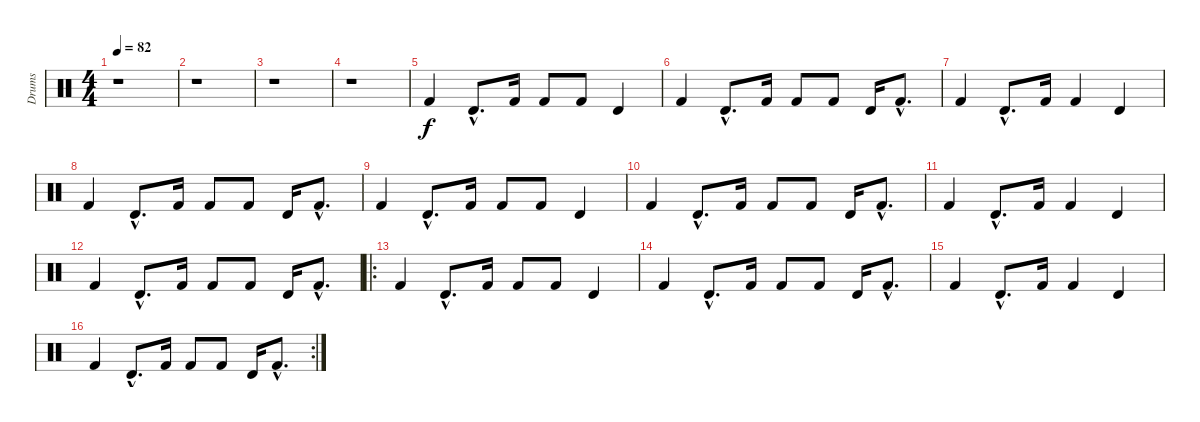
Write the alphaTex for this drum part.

\track ("Drums" "Drums") {instrument percussion}
\staff {score}
\articulation defaults
\ts (4 4)
\tempo 82
\clef neutral
\ks c
r.1{dy f} |
r.1 |
r.1 |
r.1 |
"Kick (hit) 2".4 "Timbale high (hit)"{hac}.8{d} "Kick (hit) 2".16 "Kick (hit) 2".8 "Kick (hit) 2".8 "Timbale high (hit)".4 |
"Kick (hit) 2".4 "Timbale high (hit)"{hac}.8{d} "Kick (hit) 2".16 "Kick (hit) 2".8 "Kick (hit) 2".8 "Timbale high (hit)".16 "Kick (hit) 2"{hac}.8{d} |
"Kick (hit) 2".4 "Timbale high (hit)"{hac}.8{d} "Kick (hit) 2".16 "Kick (hit) 2".4 "Timbale high (hit)".4 |
"Kick (hit) 2".4 "Timbale high (hit)"{hac}.8{d} "Kick (hit) 2".16 "Kick (hit) 2".8 "Kick (hit) 2".8 "Timbale high (hit)".16 "Kick (hit) 2"{hac}.8{d} |
"Kick (hit) 2".4 "Timbale high (hit)"{hac}.8{d} "Kick (hit) 2".16 "Kick (hit) 2".8 "Kick (hit) 2".8 "Timbale high (hit)".4 |
"Kick (hit) 2".4 "Timbale high (hit)"{hac}.8{d} "Kick (hit) 2".16 "Kick (hit) 2".8 "Kick (hit) 2".8 "Timbale high (hit)".16 "Kick (hit) 2"{hac}.8{d} |
"Kick (hit) 2".4 "Timbale high (hit)"{hac}.8{d} "Kick (hit) 2".16 "Kick (hit) 2".4 "Timbale high (hit)".4 |
"Kick (hit) 2".4 "Timbale high (hit)"{hac}.8{d} "Kick (hit) 2".16 "Kick (hit) 2".8 "Kick (hit) 2".8 "Timbale high (hit)".16 "Kick (hit) 2"{hac}.8{d} |
\ro "Kick (hit) 2".4 "Timbale high (hit)"{hac}.8{d} "Kick (hit) 2".16 "Kick (hit) 2".8 "Kick (hit) 2".8 "Timbale high (hit)".4
|
"Kick (hit) 2".4 "Timbale high (hit)"{hac}.8{d} "Kick (hit) 2".16 "Kick (hit) 2".8 "Kick (hit) 2".8 "Timbale high (hit)".16 "Kick (hit) 2"{hac}.8{d} |
"Kick (hit) 2".4 "Timbale high (hit)"{hac}.8{d} "Kick (hit) 2".16 "Kick (hit) 2".4 "Timbale high (hit)".4 |
\rc 2 "Kick (hit) 2".4 "Timbale high (hit)"{hac}.8{d} "Kick (hit) 2".16 "Kick (hit) 2".8 "Kick (hit) 2".8 "Timbale high (hit)".16 "Kick (hit) 2"{hac}.8{d}
